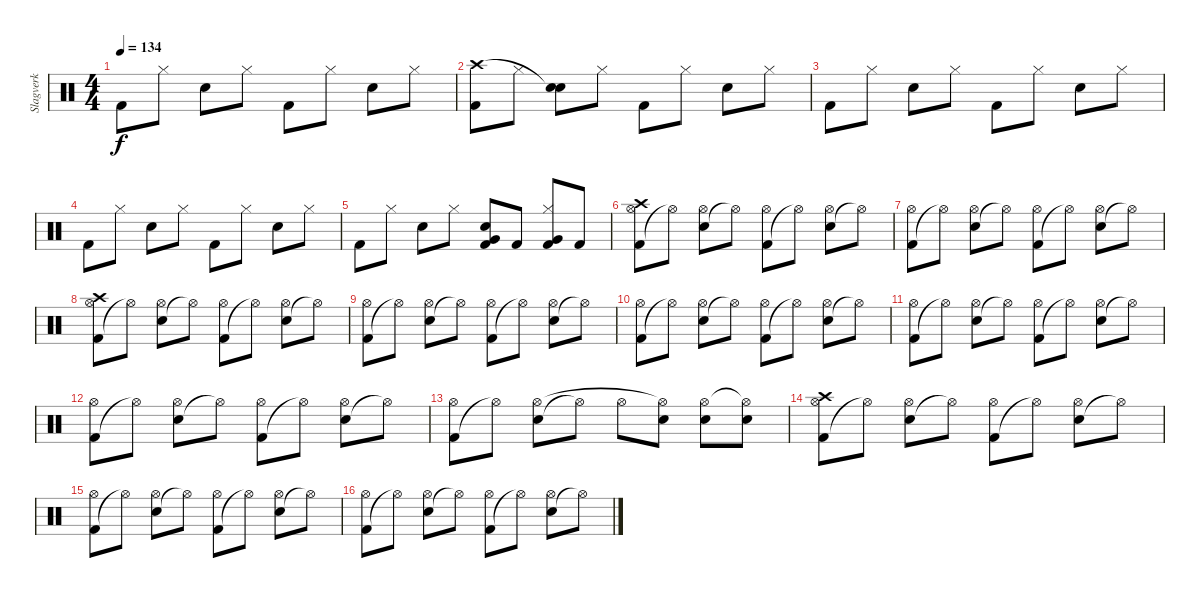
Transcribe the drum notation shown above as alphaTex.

\track ("Slagverk" "Slagverk") {instrument percussion}
\staff {score}
\articulation defaults
\ts (4 4)
\tempo 134
\clef neutral
\ks c "Kick (hit) 2".8{dy f} "Hi-Hat (closed)".8 "Electric Snare (hit)".8 "Hi-Hat (closed)".8 "Kick (hit) 2".8 "Hi-Hat (closed)".8 "Electric Snare (hit)".8 "Hi-Hat (closed)".8
|
("Kick (hit) 2" "Crash high (hit)").8 "Hi-Hat (closed)".8 ("Electric Snare (hit)" "Snare (hit)"{t}).8 "Hi-Hat (closed)".8 "Kick (hit) 2".8 "Hi-Hat (closed)".8 "Electric Snare (hit)".8 "Hi-Hat (closed)".8 |
"Kick (hit) 2".8 "Hi-Hat (closed)".8 "Electric Snare (hit)".8 "Hi-Hat (closed)".8 "Kick (hit) 2".8 "Hi-Hat (closed)".8 "Electric Snare (hit)".8 "Hi-Hat (closed)".8 |
"Kick (hit) 2".8 "Hi-Hat (closed)".8 "Electric Snare (hit)".8 "Hi-Hat (closed)".8 "Kick (hit) 2".8 "Hi-Hat (closed)".8 "Electric Snare (hit)".8 "Hi-Hat (closed)".8 |
"Kick (hit) 2".8 "Hi-Hat (closed)".8 "Electric Snare (hit)".8 "Hi-Hat (closed)".8 ("Kick (hit) 2" "Very Low Tom (hit)" "Electric Snare (hit)").8 "Kick (hit) 2".8 ("Kick (hit) 2" "Very Low Tom (hit)" "Hi-Hat (closed)").8 "Kick (hit) 2".8 |
("Kick (hit) 2" "Hi-Hat (open)" "Crash high (hit)").8 "Hi-Hat (open)"{t}.8 ("Electric Snare (hit)" "Hi-Hat (open)").8 "Hi-Hat (open)"{t}.8 ("Kick (hit) 2" "Hi-Hat (open)").8 "Hi-Hat (open)"{t}.8 ("Electric Snare (hit)" "Hi-Hat (open)").8 "Hi-Hat (open)"{t}.8 |
("Kick (hit) 2" "Hi-Hat (open)").8 "Hi-Hat (open)"{t}.8 ("Electric Snare (hit)" "Hi-Hat (open)").8 "Hi-Hat (open)"{t}.8 ("Kick (hit) 2" "Hi-Hat (open)").8 "Hi-Hat (open)"{t}.8 ("Electric Snare (hit)" "Hi-Hat (open)").8 "Hi-Hat (open)"{t}.8 |
("Kick (hit) 2" "Hi-Hat (open)" "Crash high (hit)").8 "Hi-Hat (open)"{t}.8 ("Electric Snare (hit)" "Hi-Hat (open)").8 "Hi-Hat (open)"{t}.8 ("Kick (hit) 2" "Hi-Hat (open)").8 "Hi-Hat (open)"{t}.8 ("Electric Snare (hit)" "Hi-Hat (open)").8 "Hi-Hat (open)"{t}.8 |
("Kick (hit) 2" "Hi-Hat (open)").8 "Hi-Hat (open)"{t}.8 ("Electric Snare (hit)" "Hi-Hat (open)").8 "Hi-Hat (open)"{t}.8 ("Kick (hit) 2" "Hi-Hat (open)").8 "Hi-Hat (open)"{t}.8 ("Electric Snare (hit)" "Hi-Hat (open)").8 "Hi-Hat (open)"{t}.8 |
("Kick (hit) 2" "Hi-Hat (open)").8 "Hi-Hat (open)"{t}.8 ("Electric Snare (hit)" "Hi-Hat (open)").8 "Hi-Hat (open)"{t}.8 ("Kick (hit) 2" "Hi-Hat (open)").8 "Hi-Hat (open)"{t}.8 ("Electric Snare (hit)" "Hi-Hat (open)").8 "Hi-Hat (open)"{t}.8 |
("Kick (hit) 2" "Hi-Hat (open)").8 "Hi-Hat (open)"{t}.8 ("Electric Snare (hit)" "Hi-Hat (open)").8 "Hi-Hat (open)"{t}.8 ("Kick (hit) 2" "Hi-Hat (open)").8 "Hi-Hat (open)"{t}.8 ("Electric Snare (hit)" "Hi-Hat (open)").8 "Hi-Hat (open)"{t}.8 |
("Kick (hit) 2" "Hi-Hat (open)").8 "Hi-Hat (open)"{t}.8 ("Electric Snare (hit)" "Hi-Hat (open)").8 "Hi-Hat (open)"{t}.8 ("Kick (hit) 2" "Hi-Hat (open)").8 "Hi-Hat (open)"{t}.8 ("Electric Snare (hit)" "Hi-Hat (open)").8 "Hi-Hat (open)"{t}.8 |
("Kick (hit) 2" "Hi-Hat (open)").8 "Hi-Hat (open)"{t}.8 ("Electric Snare (hit)" "Hi-Hat (open)").8 "Hi-Hat (open)"{t}.8 "Hi-Hat (open)".8 ("Electric Snare (hit)" "Hi-Hat (open)"{t}).8 ("Electric Snare (hit)" "Hi-Hat (open)").8 ("Electric Snare (hit)" "Hi-Hat (open)"{t}).8 |
("Kick (hit) 2" "Hi-Hat (open)" "Crash high (hit)").8 "Hi-Hat (open)"{t}.8 ("Electric Snare (hit)" "Hi-Hat (open)").8 "Hi-Hat (open)"{t}.8 ("Kick (hit) 2" "Hi-Hat (open)").8 "Hi-Hat (open)"{t}.8 ("Electric Snare (hit)" "Hi-Hat (open)").8 "Hi-Hat (open)"{t}.8 |
("Kick (hit) 2" "Hi-Hat (open)").8 "Hi-Hat (open)"{t}.8 ("Electric Snare (hit)" "Hi-Hat (open)").8 "Hi-Hat (open)"{t}.8 ("Kick (hit) 2" "Hi-Hat (open)").8 "Hi-Hat (open)"{t}.8 ("Electric Snare (hit)" "Hi-Hat (open)").8 "Hi-Hat (open)"{t}.8 |
("Kick (hit) 2" "Hi-Hat (open)").8 "Hi-Hat (open)"{t}.8 ("Electric Snare (hit)" "Hi-Hat (open)").8 "Hi-Hat (open)"{t}.8 ("Kick (hit) 2" "Hi-Hat (open)").8 "Hi-Hat (open)"{t}.8 ("Electric Snare (hit)" "Hi-Hat (open)").8 "Hi-Hat (open)"{t}.8
